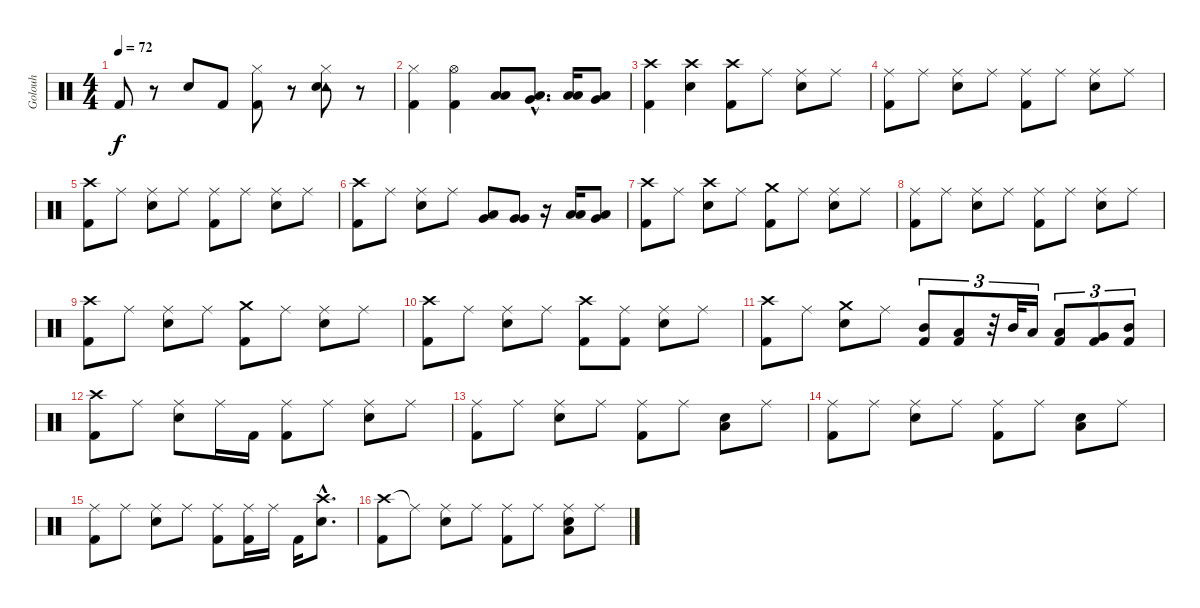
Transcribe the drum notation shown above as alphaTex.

\track ("Golouh" "Golouh") {instrument percussion}
\staff {score}
\articulation defaults
\ts (4 4)
\tempo 72
\clef neutral
\ks c "Kick (hit) 2".8{dy f}
r.8 "Snare (hit) 2".8 "Kick (hit) 2".8 ("Hi-Hat (closed)" "Kick (hit) 2").8 r.8 ("Hi-Hat (closed)" "Tambourine (hit)" "Snare (hit) 2").8 r.8 |
("Hi-Hat (closed)" "Kick (hit) 2").4 ("Hi-Hat (open)" "Kick (hit) 2").4 ("Low Tom (hit)" "Low Floor Tom (hit)").8 ("Very Low Tom (hit)"{hac} "Low Floor Tom (hit)"{hac}).8{d} ("Low Tom (hit)" "Low Floor Tom (hit)").16 ("Very Low Tom (hit)" "Low Floor Tom (hit)").8 |
("Crash high (hit)" "Kick (hit) 2").4 ("Crash high (hit)" "Snare (hit) 2").4 ("Crash high (hit)" "Kick (hit) 2").8 "Ride (middle)".8 ("Ride (middle)" "Snare (hit) 2").8 "Ride (middle)".8 |
("Ride (middle)" "Kick (hit) 2").8 "Ride (middle)".8 ("Ride (middle)" "Snare (hit) 2").8 "Ride (middle)".8 ("Ride (middle)" "Kick (hit) 2").8 "Ride (middle)".8 ("Ride (middle)" "Snare (hit) 2").8 "Ride (middle)".8 |
("Crash high (hit)" "Kick (hit) 2").8 "Ride (middle)".8 ("Ride (middle)" "Snare (hit) 2").8 "Ride (middle)".8 ("Ride (middle)" "Kick (hit) 2").8 "Ride (middle)".8 ("Ride (middle)" "Snare (hit) 2").8 "Ride (middle)".8 |
("Crash high (hit)" "Kick (hit) 2").8 "Ride (middle)".8 ("Ride (middle)" "Snare (hit) 2").8 "Ride (middle)".8 ("Very Low Tom (hit)" "Low Tom (hit)").8 ("Very Low Tom (hit)" "Very Low Tom (hit)").8 r.16 ("Low Tom (hit)" "Low Tom (hit)").16 ("Low Floor Tom (hit)" "Very Low Tom (hit)").8 |
("Crash high (hit)" "Kick (hit) 2").8 "Ride (middle)".8 ("Crash high (hit)" "Snare (hit) 2").8 "Ride (middle)".8 ("Crash medium (hit)" "Kick (hit) 2").8 "Ride (middle)".8 ("Ride (middle)" "Snare (hit) 2").8 "Ride (middle)".8 |
("Ride (middle)" "Kick (hit) 2").8 "Ride (middle)".8 ("Ride (middle)" "Snare (hit) 2").8 "Ride (middle)".8 ("Ride (middle)" "Kick (hit) 2").8 "Ride (middle)".8 ("Ride (middle)" "Snare (hit) 2").8 "Ride (middle)".8 |
("Crash high (hit)" "Kick (hit) 2").8 "Ride (middle)".8 ("Ride (middle)" "Snare (hit) 2").8 "Ride (middle)".8 ("Crash medium (hit)" "Kick (hit) 2").8 "Ride (middle)".8 ("Ride (middle)" "Snare (hit) 2").8 "Ride (middle)".8 |
("Crash high (hit)" "Kick (hit) 2").8 "Ride (middle)".8 ("Ride (middle)" "Snare (hit) 2").8 "Ride (middle)".8 ("Crash high (hit)" "Kick (hit) 2").8 ("Ride (middle)" "Kick (hit) 2").8 ("Ride (middle)" "Snare (hit) 2").8 "Ride (middle)".8 |
("Crash high (hit)" "Kick (hit) 2").8 "Ride (middle)".8 ("Crash medium (hit)" "Snare (hit) 2").8 "Ride (middle)".8 ("Mid Tom (hit)" "Kick (hit) 2").8{tu (3 2)} ("Low Tom (hit)" "Kick (hit) 2").8{tu (3 2)} r.32{tu (3 2)} "Mid Tom (hit)".32{tu (3 2)} "Low Tom (hit)".16{tu (3 2)} ("Low Tom (hit)" "Kick (hit) 2").8{tu (3 2)} ("Very Low Tom (hit)" "Kick (hit) 2").8{tu (3 2)} ("Mid Tom (hit)" "Kick (hit) 2").8{tu (3 2)} |
("Crash high (hit)" "Kick (hit) 2").8 "Ride (middle)".8 ("Ride (middle)" "Snare (hit) 2").8 "Ride (middle)".16 "Kick (hit) 2".16 ("Ride (middle)" "Kick (hit) 2").8 "Ride (middle)".8 ("Ride (middle)" "Snare (hit) 2").8 "Ride (middle)".8 |
("Ride (middle)" "Kick (hit) 2").8 "Ride (middle)".8 ("Ride (middle)" "Snare (hit) 2").8 "Ride (middle)".8 ("Ride (middle)" "Kick (hit) 2").8 "Ride (middle)".8 ("Low Floor Tom (hit)" "Snare (hit) 2").8 "Ride (middle)".8 |
("Ride (middle)" "Kick (hit) 2").8 "Ride (middle)".8 ("Ride (middle)" "Snare (hit) 2").8 "Ride (middle)".8 ("Ride (middle)" "Kick (hit) 2").8 "Ride (middle)".8 ("Low Floor Tom (hit)" "Snare (hit) 2").8 "Ride (middle)".8 |
("Ride (middle)" "Kick (hit) 2").8 "Ride (middle)".8 ("Ride (middle)" "Snare (hit) 2").8 "Ride (middle)".8 ("Ride (middle)" "Kick (hit) 2").8 ("Ride (middle)" "Kick (hit) 2").16 "Ride (middle)".16 "Kick (hit) 2".16 ("Crash high (hit)"{hac} "Snare (hit) 2"{hac}).8{d} |
("Crash high (hit)" "Kick (hit) 2").8 "Ride (middle)"{t}.8 ("Ride (middle)" "Snare (hit) 2").8 "Ride (middle)".8 ("Ride (middle)" "Kick (hit) 2").8 "Ride (middle)".8 ("Ride (middle)" "Low Floor Tom (hit)" "Snare (hit) 2").8 "Ride (middle)".8
